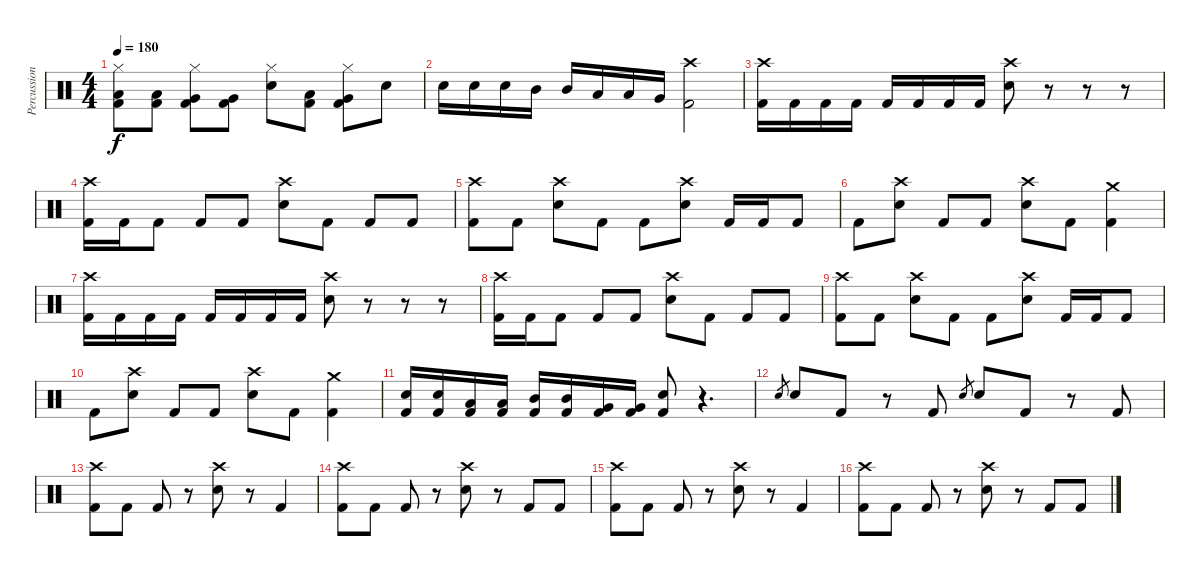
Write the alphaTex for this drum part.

\track ("Percussion" "Percussion") {instrument percussion}
\staff {score}
\articulation defaults
\ts (4 4)
\tempo 180
\clef neutral
\ks c
("Hi-Hat (closed)" "Low Tom (hit)" "Kick (hit) 2").8{dy f} ("Low Tom (hit)" "Kick (hit) 2").8 ("Hi-Hat (closed)" "Very Low Tom (hit)" "Kick (hit) 2").8 ("Very Low Tom (hit)" "Kick (hit) 2").8 ("Hi-Hat (closed)" "Electric Snare (hit)").8 ("Low Tom (hit)" "Kick (hit) 2").8 ("Hi-Hat (closed)" "Very Low Tom (hit)" "Kick (hit) 2").8 "Electric Snare (hit)".8 |
"Electric Snare (hit)".16 "Electric Snare (hit)".16 "Electric Snare (hit)".16 "Mid Tom (hit)".16 "Mid Tom (hit)".16 "Low Tom (hit)".16 "Low Tom (hit)".16 "Very Low Tom (hit)".16 ("Crash high (hit)" "Kick (hit) 2").2 |
("Crash high (hit)" "Kick (hit) 2").16 "Kick (hit) 2".16 "Kick (hit) 2".16 "Kick (hit) 2".16 "Kick (hit) 2".16 "Kick (hit) 2".16 "Kick (hit) 2".16 "Kick (hit) 2".16 ("Crash high (hit)" "Electric Snare (hit)").8 r.8 r.8 r.8 |
("Crash high (hit)" "Kick (hit) 2").16 "Kick (hit) 2".16 "Kick (hit) 2".8 "Kick (hit) 2".8 "Kick (hit) 2".8 ("Crash high (hit)" "Electric Snare (hit)").8 "Kick (hit) 2".8 "Kick (hit) 2".8 "Kick (hit) 2".8 |
("Crash high (hit)" "Kick (hit) 2").8 "Kick (hit) 2".8 ("Crash high (hit)" "Electric Snare (hit)").8 "Kick (hit) 2".8 "Kick (hit) 2".8 ("Crash high (hit)" "Electric Snare (hit)").8 "Kick (hit) 2".16 "Kick (hit) 2".16 "Kick (hit) 2".8 |
"Kick (hit) 2".8 ("Crash high (hit)" "Electric Snare (hit)").8 "Kick (hit) 2".8 "Kick (hit) 2".8 ("Crash high (hit)" "Electric Snare (hit)").8 "Kick (hit) 2".8 ("Crash medium (hit)" "Kick (hit) 2").4 |
("Crash high (hit)" "Kick (hit) 2").16 "Kick (hit) 2".16 "Kick (hit) 2".16 "Kick (hit) 2".16 "Kick (hit) 2".16 "Kick (hit) 2".16 "Kick (hit) 2".16 "Kick (hit) 2".16 ("Crash high (hit)" "Electric Snare (hit)").8 r.8 r.8 r.8 |
("Crash high (hit)" "Kick (hit) 2").16 "Kick (hit) 2".16 "Kick (hit) 2".8 "Kick (hit) 2".8 "Kick (hit) 2".8 ("Crash high (hit)" "Electric Snare (hit)").8 "Kick (hit) 2".8 "Kick (hit) 2".8 "Kick (hit) 2".8 |
("Crash high (hit)" "Kick (hit) 2").8 "Kick (hit) 2".8 ("Crash high (hit)" "Electric Snare (hit)").8 "Kick (hit) 2".8 "Kick (hit) 2".8 ("Crash high (hit)" "Electric Snare (hit)").8 "Kick (hit) 2".16 "Kick (hit) 2".16 "Kick (hit) 2".8 |
"Kick (hit) 2".8 ("Crash high (hit)" "Electric Snare (hit)").8 "Kick (hit) 2".8 "Kick (hit) 2".8 ("Crash high (hit)" "Electric Snare (hit)").8 "Kick (hit) 2".8 ("Crash medium (hit)" "Kick (hit) 2").4 |
("Electric Snare (hit)" "Kick (hit) 2").16 ("Electric Snare (hit)" "Kick (hit) 2").16 ("Low Tom (hit)" "Kick (hit) 2").16 ("Low Tom (hit)" "Kick (hit) 2").16 ("Mid Tom (hit)" "Kick (hit) 2").16 ("Mid Tom (hit)" "Kick (hit) 2").16 ("Very Low Tom (hit)" "Kick (hit) 2").16 ("Very Low Tom (hit)" "Kick (hit) 2").16 ("Electric Snare (hit)" "Kick (hit) 2").8 r.4{d} |
"Electric Snare (hit)".8{gr} "Electric Snare (hit)".8 "Kick (hit) 2".8 r.8 "Kick (hit) 2".8 "Electric Snare (hit)".8{gr} "Electric Snare (hit)".8 "Kick (hit) 2".8 r.8 "Kick (hit) 2".8 |
("Crash high (hit)" "Kick (hit) 2").8 "Kick (hit) 2".8 "Kick (hit) 2".8 r.8 ("Crash high (hit)" "Electric Snare (hit)").8 r.8 "Kick (hit) 2".4 |
("Crash high (hit)" "Kick (hit) 2").8 "Kick (hit) 2".8 "Kick (hit) 2".8 r.8 ("Crash high (hit)" "Electric Snare (hit)").8 r.8 "Kick (hit) 2".8 "Kick (hit) 2".8 |
("Crash high (hit)" "Kick (hit) 2").8 "Kick (hit) 2".8 "Kick (hit) 2".8 r.8 ("Crash high (hit)" "Electric Snare (hit)").8 r.8 "Kick (hit) 2".4 |
("Crash high (hit)" "Kick (hit) 2").8 "Kick (hit) 2".8 "Kick (hit) 2".8 r.8 ("Crash high (hit)" "Electric Snare (hit)").8 r.8 "Kick (hit) 2".8 "Kick (hit) 2".8
